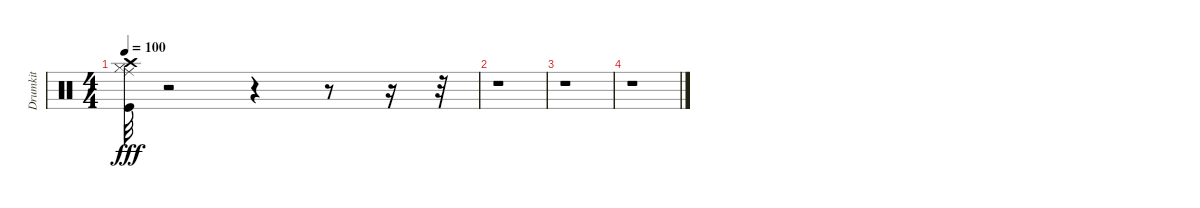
\track ("Drumkit" "Drumkit") {instrument percussion}
\staff {score}
\articulation defaults
\ts (4 4)
\tempo 100
\clef neutral
\ks c
("Kick (hit)" "Hi-Hat (closed)" "Crash high (hit)" "Ride (middle)").32{dy fff} r.2 r.4 r.8 r.16 r.32 |
r.1 |
r.1 |
r.1
